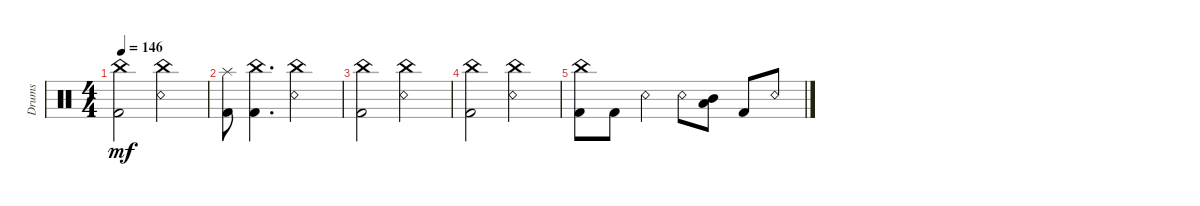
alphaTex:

\track ("Drums" "Drums") {instrument percussion}
\staff {score}
\articulation defaults
\ts (4 4)
\tempo 146
\clef neutral
\ks c
("China (hit)" "Kick (hit) 2").2{dy mf} ("China (hit)" "Snare (rim shot)").2 |
("Splash (hit)" "Kick (hit) 2").8 ("China (hit)" "Kick (hit) 2").4{d} ("China (hit)" "Snare (rim shot)").2 |
("China (hit)" "Kick (hit) 2").2 ("China (hit)" "Snare (rim shot)").2 |
("China (hit)" "Kick (hit) 2").2 ("China (hit)" "Snare (rim shot)").2 |
("China (hit)" "Kick (hit) 2").8 "Kick (hit) 2".8 "Snare (rim shot)".4 "Snare (rim shot)".8 ("Mid Tom (hit)" "Low Tom (hit)").8 "Kick (hit) 2".8 "Snare (rim shot)".8
